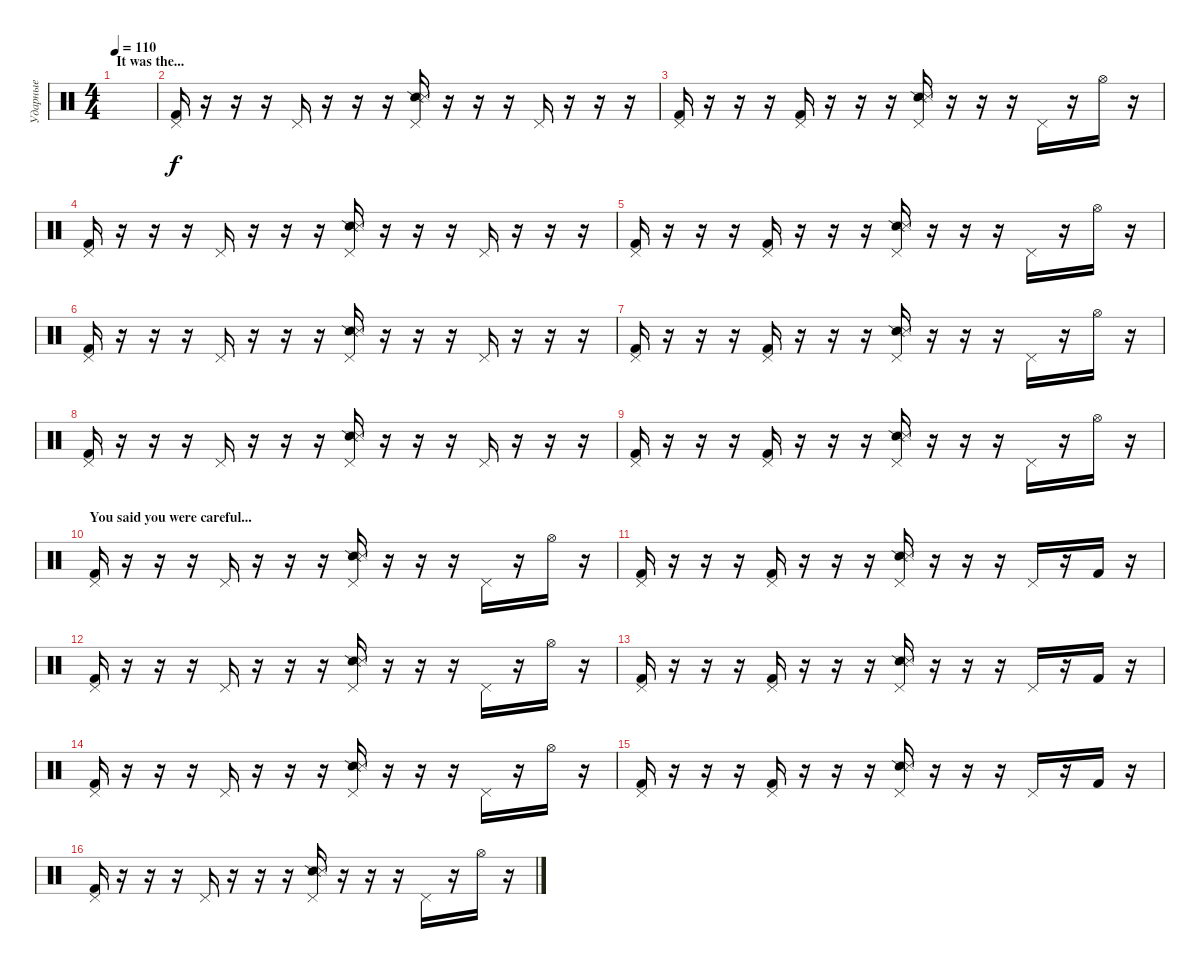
\track ("Ударные" "Ударные") {instrument percussion}
\staff {score}
\articulation defaults
\ts (4 4)
\section ("" "It was the...")
\tempo 110
\clef neutral
\ks c
|
("Pedal Hi-Hat (hit)" "Kick (hit) 2").16 r.16 r.16 r.16 "Pedal Hi-Hat (hit)".16 r.16 r.16 r.16 ("Pedal Hi-Hat (hit)" "Snare (side stick) 2" "Metronome (hit)").16 r.16 r.16 r.16 "Pedal Hi-Hat (hit)".16 r.16 r.16 r.16 |
("Pedal Hi-Hat (hit)" "Kick (hit) 2").16 r.16 r.16 r.16 ("Pedal Hi-Hat (hit)" "Kick (hit) 2").16 r.16 r.16 r.16 ("Pedal Hi-Hat (hit)" "Snare (side stick) 2" "Metronome (hit)").16 r.16 r.16 r.16 "Pedal Hi-Hat (hit)".16 r.16 "Hi-Hat (open)".16 r.16 |
("Pedal Hi-Hat (hit)" "Kick (hit) 2").16 r.16 r.16 r.16 "Pedal Hi-Hat (hit)".16 r.16 r.16 r.16 ("Pedal Hi-Hat (hit)" "Snare (side stick) 2" "Metronome (hit)").16 r.16 r.16 r.16 "Pedal Hi-Hat (hit)".16 r.16 r.16 r.16 |
("Pedal Hi-Hat (hit)" "Kick (hit) 2").16 r.16 r.16 r.16 ("Pedal Hi-Hat (hit)" "Kick (hit) 2").16 r.16 r.16 r.16 ("Pedal Hi-Hat (hit)" "Snare (side stick) 2" "Metronome (hit)").16 r.16 r.16 r.16 "Pedal Hi-Hat (hit)".16 r.16 "Hi-Hat (open)".16 r.16 |
("Pedal Hi-Hat (hit)" "Kick (hit) 2").16 r.16 r.16 r.16 "Pedal Hi-Hat (hit)".16 r.16 r.16 r.16 ("Pedal Hi-Hat (hit)" "Snare (side stick) 2" "Metronome (hit)").16 r.16 r.16 r.16 "Pedal Hi-Hat (hit)".16 r.16 r.16 r.16 |
("Pedal Hi-Hat (hit)" "Kick (hit) 2").16 r.16 r.16 r.16 ("Pedal Hi-Hat (hit)" "Kick (hit) 2").16 r.16 r.16 r.16 ("Pedal Hi-Hat (hit)" "Snare (side stick) 2" "Metronome (hit)").16 r.16 r.16 r.16 "Pedal Hi-Hat (hit)".16 r.16 "Hi-Hat (open)".16 r.16 |
("Pedal Hi-Hat (hit)" "Kick (hit) 2").16 r.16 r.16 r.16 "Pedal Hi-Hat (hit)".16 r.16 r.16 r.16 ("Pedal Hi-Hat (hit)" "Snare (side stick) 2" "Metronome (hit)").16 r.16 r.16 r.16 "Pedal Hi-Hat (hit)".16 r.16 r.16 r.16 |
("Pedal Hi-Hat (hit)" "Kick (hit) 2").16 r.16 r.16 r.16 ("Pedal Hi-Hat (hit)" "Kick (hit) 2").16 r.16 r.16 r.16 ("Pedal Hi-Hat (hit)" "Snare (side stick) 2" "Metronome (hit)").16 r.16 r.16 r.16 "Pedal Hi-Hat (hit)".16 r.16 "Hi-Hat (open)".16 r.16 |
\section ("" "You said you were careful...")
("Pedal Hi-Hat (hit)" "Kick (hit) 2").16 r.16 r.16 r.16 "Pedal Hi-Hat (hit)".16 r.16 r.16 r.16 ("Pedal Hi-Hat (hit)" "Snare (side stick) 2" "Metronome (hit)").16 r.16 r.16 r.16 "Pedal Hi-Hat (hit)".16 r.16 "Hi-Hat (open)".16 r.16 |
("Pedal Hi-Hat (hit)" "Kick (hit) 2").16 r.16 r.16 r.16 ("Pedal Hi-Hat (hit)" "Kick (hit) 2").16 r.16 r.16 r.16 ("Pedal Hi-Hat (hit)" "Snare (side stick) 2" "Metronome (hit)").16 r.16 r.16 r.16 "Pedal Hi-Hat (hit)".16 r.16 "Kick (hit) 2".16 r.16 |
("Pedal Hi-Hat (hit)" "Kick (hit) 2").16 r.16 r.16 r.16 "Pedal Hi-Hat (hit)".16 r.16 r.16 r.16 ("Pedal Hi-Hat (hit)" "Snare (side stick) 2" "Metronome (hit)").16 r.16 r.16 r.16 "Pedal Hi-Hat (hit)".16 r.16 "Hi-Hat (open)".16 r.16 |
("Pedal Hi-Hat (hit)" "Kick (hit) 2").16 r.16 r.16 r.16 ("Pedal Hi-Hat (hit)" "Kick (hit) 2").16 r.16 r.16 r.16 ("Pedal Hi-Hat (hit)" "Snare (side stick) 2" "Metronome (hit)").16 r.16 r.16 r.16 "Pedal Hi-Hat (hit)".16 r.16 "Kick (hit) 2".16 r.16 |
("Pedal Hi-Hat (hit)" "Kick (hit) 2").16 r.16 r.16 r.16 "Pedal Hi-Hat (hit)".16 r.16 r.16 r.16 ("Pedal Hi-Hat (hit)" "Snare (side stick) 2" "Metronome (hit)").16 r.16 r.16 r.16 "Pedal Hi-Hat (hit)".16 r.16 "Hi-Hat (open)".16 r.16 |
("Pedal Hi-Hat (hit)" "Kick (hit) 2").16 r.16 r.16 r.16 ("Pedal Hi-Hat (hit)" "Kick (hit) 2").16 r.16 r.16 r.16 ("Pedal Hi-Hat (hit)" "Snare (side stick) 2" "Metronome (hit)").16 r.16 r.16 r.16 "Pedal Hi-Hat (hit)".16 r.16 "Kick (hit) 2".16 r.16 |
("Pedal Hi-Hat (hit)" "Kick (hit) 2").16 r.16 r.16 r.16 "Pedal Hi-Hat (hit)".16 r.16 r.16 r.16 ("Pedal Hi-Hat (hit)" "Snare (side stick) 2" "Metronome (hit)").16 r.16 r.16 r.16 "Pedal Hi-Hat (hit)".16 r.16 "Hi-Hat (open)".16 r.16
